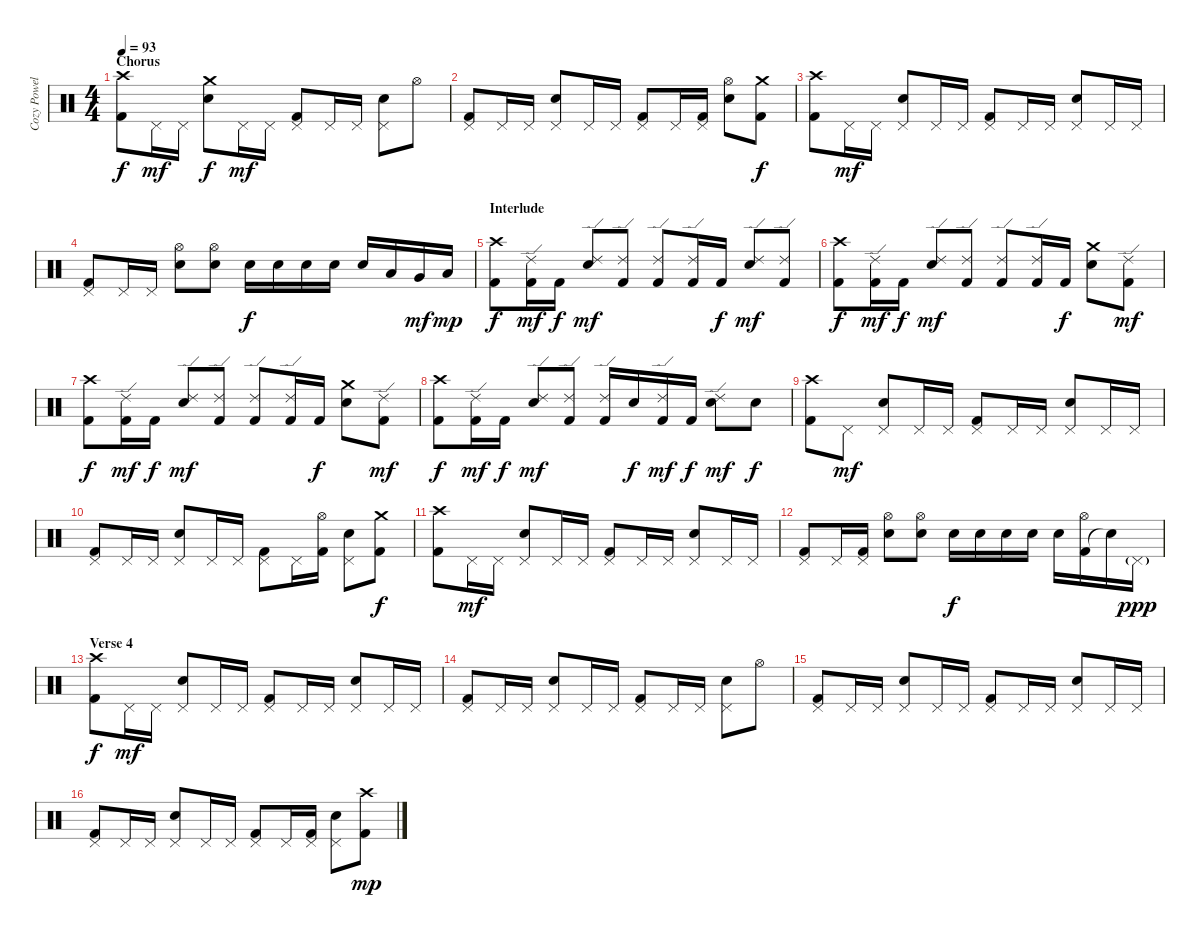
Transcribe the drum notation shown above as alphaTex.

\track ("Cozy Powell" "Cozy Powel") {instrument percussion}
\staff {score}
\articulation defaults
\ts (4 4)
\section ("" "Chorus")
\tempo 93
\clef neutral
\ks c
("Kick (hit) 2" "Crash high (hit)").8{dy f} "Pedal Hi-Hat (hit)".16{dy mf} "Pedal Hi-Hat (hit)".16 ("Crash medium (hit)" "Snare (hit) 2").8{dy f} "Pedal Hi-Hat (hit)".16{dy mf} "Pedal Hi-Hat (hit)".16 ("Kick (hit) 2" "Pedal Hi-Hat (hit)").8 "Pedal Hi-Hat (hit)".16 "Pedal Hi-Hat (hit)".16 ("Pedal Hi-Hat (hit)" "Snare (hit) 2").8 "Hi-Hat (open)".8 |
("Kick (hit) 2" "Pedal Hi-Hat (hit)").8 "Pedal Hi-Hat (hit)".16 "Pedal Hi-Hat (hit)".16 ("Pedal Hi-Hat (hit)" "Snare (hit) 2").8 "Pedal Hi-Hat (hit)".16 "Pedal Hi-Hat (hit)".16 ("Kick (hit) 2" "Pedal Hi-Hat (hit)").8 "Pedal Hi-Hat (hit)".16 ("Kick (hit) 2" "Pedal Hi-Hat (hit)").16 ("Hi-Hat (open)" "Snare (hit) 2").8 ("Kick (hit) 2" "Crash medium (hit)").8{dy f} |
("Kick (hit) 2" "Crash high (hit)").8 "Pedal Hi-Hat (hit)".16{dy mf} "Pedal Hi-Hat (hit)".16 ("Pedal Hi-Hat (hit)" "Snare (hit) 2").8 "Pedal Hi-Hat (hit)".16 "Pedal Hi-Hat (hit)".16 ("Kick (hit) 2" "Pedal Hi-Hat (hit)").8 "Pedal Hi-Hat (hit)".16 "Pedal Hi-Hat (hit)".16 ("Pedal Hi-Hat (hit)" "Snare (hit) 2").8 "Pedal Hi-Hat (hit)".16 "Pedal Hi-Hat (hit)".16 |
("Kick (hit) 2" "Pedal Hi-Hat (hit)").8 "Pedal Hi-Hat (hit)".16 "Pedal Hi-Hat (hit)".16 ("Hi-Hat (open)" "Snare (hit) 2").8 ("Hi-Hat (open)" "Snare (hit) 2").8 "Snare (hit) 2".16{dy f} "Snare (hit) 2".16 "Snare (hit) 2".16 "Snare (hit) 2".16 "Snare (hit) 2".16 "Low Tom (hit)".16 "Very Low Tom (hit)".16{dy mf} "Low Floor Tom (hit)".16{dy mp} |
\section ("" "Interlude")
("Kick (hit) 2" "Crash high (hit)").8{dy f} ("Kick (hit) 2" "Ride (edge) 2").16{dy mf} "Kick (hit) 2".16{dy f} ("Ride (edge) 2" "Snare (hit) 2").8{dy mf} ("Kick (hit) 2" "Ride (edge) 2").8 ("Kick (hit) 2" "Ride (edge) 2").8 ("Kick (hit) 2" "Ride (edge) 2").16 "Kick (hit) 2".16{dy f} ("Ride (edge) 2" "Snare (hit) 2").8{dy mf} ("Kick (hit) 2" "Ride (edge) 2").8 |
("Kick (hit) 2" "Crash high (hit)").8{dy f} ("Kick (hit) 2" "Ride (edge) 2").16{dy mf} "Kick (hit) 2".16{dy f} ("Ride (edge) 2" "Snare (hit) 2").8{dy mf} ("Kick (hit) 2" "Ride (edge) 2").8 ("Kick (hit) 2" "Ride (edge) 2").8 ("Kick (hit) 2" "Ride (edge) 2").16 "Kick (hit) 2".16{dy f} ("Crash medium (hit)" "Snare (hit) 2").8 ("Kick (hit) 2" "Ride (edge) 2").8{dy mf} |
("Kick (hit) 2" "Crash high (hit)").8{dy f} ("Kick (hit) 2" "Ride (edge) 2").16{dy mf} "Kick (hit) 2".16{dy f} ("Ride (edge) 2" "Snare (hit) 2").8{dy mf} ("Kick (hit) 2" "Ride (edge) 2").8 ("Kick (hit) 2" "Ride (edge) 2").8 ("Kick (hit) 2" "Ride (edge) 2").16 "Kick (hit) 2".16{dy f} ("Crash medium (hit)" "Snare (hit) 2").8 ("Kick (hit) 2" "Ride (edge) 2").8{dy mf} |
("Kick (hit) 2" "Crash high (hit)").8{dy f} ("Kick (hit) 2" "Ride (edge) 2").16{dy mf} "Kick (hit) 2".16{dy f} ("Ride (edge) 2" "Snare (hit) 2").8{dy mf} ("Kick (hit) 2" "Ride (edge) 2").8 ("Kick (hit) 2" "Ride (edge) 2").16 "Snare (hit) 2".16{dy f} ("Kick (hit) 2" "Ride (edge) 2").16{dy mf} "Kick (hit) 2".16{dy f} ("Ride (edge) 2" "Snare (hit) 2").8{dy mf} "Snare (hit) 2".8{dy f} |
("Kick (hit) 2" "Crash high (hit)").8 "Pedal Hi-Hat (hit)".8{dy mf} ("Pedal Hi-Hat (hit)" "Snare (hit) 2").8 "Pedal Hi-Hat (hit)".16 "Pedal Hi-Hat (hit)".16 ("Kick (hit) 2" "Pedal Hi-Hat (hit)").8 "Pedal Hi-Hat (hit)".16 "Pedal Hi-Hat (hit)".16 ("Pedal Hi-Hat (hit)" "Snare (hit) 2").8 "Pedal Hi-Hat (hit)".16 "Pedal Hi-Hat (hit)".16 |
("Kick (hit) 2" "Pedal Hi-Hat (hit)").8 "Pedal Hi-Hat (hit)".16 "Pedal Hi-Hat (hit)".16 ("Pedal Hi-Hat (hit)" "Snare (hit) 2").8 "Pedal Hi-Hat (hit)".16 "Pedal Hi-Hat (hit)".16 ("Kick (hit) 2" "Pedal Hi-Hat (hit)").8 "Pedal Hi-Hat (hit)".16 ("Kick (hit) 2" "Hi-Hat (open)").16 ("Pedal Hi-Hat (hit)" "Snare (hit) 2").8 ("Kick (hit) 2" "Crash medium (hit)").8{dy f} |
("Kick (hit) 2" "Crash high (hit)").8 "Pedal Hi-Hat (hit)".16{dy mf} "Pedal Hi-Hat (hit)".16 ("Pedal Hi-Hat (hit)" "Snare (hit) 2").8 "Pedal Hi-Hat (hit)".16 "Pedal Hi-Hat (hit)".16 ("Kick (hit) 2" "Pedal Hi-Hat (hit)").8 "Pedal Hi-Hat (hit)".16 "Pedal Hi-Hat (hit)".16 ("Pedal Hi-Hat (hit)" "Snare (hit) 2").8 "Pedal Hi-Hat (hit)".16 "Pedal Hi-Hat (hit)".16 |
("Kick (hit) 2" "Pedal Hi-Hat (hit)").8 "Pedal Hi-Hat (hit)".16 ("Kick (hit) 2" "Pedal Hi-Hat (hit)").16 ("Hi-Hat (open)" "Snare (hit) 2").8 ("Hi-Hat (open)" "Snare (hit) 2").8 "Snare (hit) 2".16{dy f} "Snare (hit) 2".16 "Snare (hit) 2".16 "Snare (hit) 2".16 "Snare (hit) 2".16 ("Kick (hit) 2" "Hi-Hat (open)").16 "Snare (hit)"{t}.16 "Pedal Hi-Hat (hit)"{g}.16{dy ppp} |
\section ("" "Verse 4")
("Kick (hit) 2" "Crash high (hit)").8{dy f} "Pedal Hi-Hat (hit)".16{dy mf} "Pedal Hi-Hat (hit)".16 ("Pedal Hi-Hat (hit)" "Snare (hit) 2").8 "Pedal Hi-Hat (hit)".16 "Pedal Hi-Hat (hit)".16 ("Kick (hit) 2" "Pedal Hi-Hat (hit)").8 "Pedal Hi-Hat (hit)".16 "Pedal Hi-Hat (hit)".16 ("Pedal Hi-Hat (hit)" "Snare (hit) 2").8 "Pedal Hi-Hat (hit)".16 "Pedal Hi-Hat (hit)".16 |
("Kick (hit) 2" "Pedal Hi-Hat (hit)").8 "Pedal Hi-Hat (hit)".16 "Pedal Hi-Hat (hit)".16 ("Pedal Hi-Hat (hit)" "Snare (hit) 2").8 "Pedal Hi-Hat (hit)".16 "Pedal Hi-Hat (hit)".16 ("Kick (hit) 2" "Pedal Hi-Hat (hit)").8 "Pedal Hi-Hat (hit)".16 "Pedal Hi-Hat (hit)".16 ("Pedal Hi-Hat (hit)" "Snare (hit) 2").8 "Hi-Hat (open)".8 |
("Kick (hit) 2" "Pedal Hi-Hat (hit)").8 "Pedal Hi-Hat (hit)".16 "Pedal Hi-Hat (hit)".16 ("Pedal Hi-Hat (hit)" "Snare (hit) 2").8 "Pedal Hi-Hat (hit)".16 "Pedal Hi-Hat (hit)".16 ("Kick (hit) 2" "Pedal Hi-Hat (hit)").8 "Pedal Hi-Hat (hit)".16 "Pedal Hi-Hat (hit)".16 ("Pedal Hi-Hat (hit)" "Snare (hit) 2").8 "Pedal Hi-Hat (hit)".16 "Pedal Hi-Hat (hit)".16 |
("Kick (hit) 2" "Pedal Hi-Hat (hit)").8 "Pedal Hi-Hat (hit)".16 "Pedal Hi-Hat (hit)".16 ("Pedal Hi-Hat (hit)" "Snare (hit) 2").8 "Pedal Hi-Hat (hit)".16 "Pedal Hi-Hat (hit)".16 ("Kick (hit) 2" "Pedal Hi-Hat (hit)").8 "Pedal Hi-Hat (hit)".16 ("Kick (hit) 2" "Pedal Hi-Hat (hit)").16 ("Pedal Hi-Hat (hit)" "Snare (hit) 2").8 ("Kick (hit) 2" "Crash high (hit)").8{dy mp}
